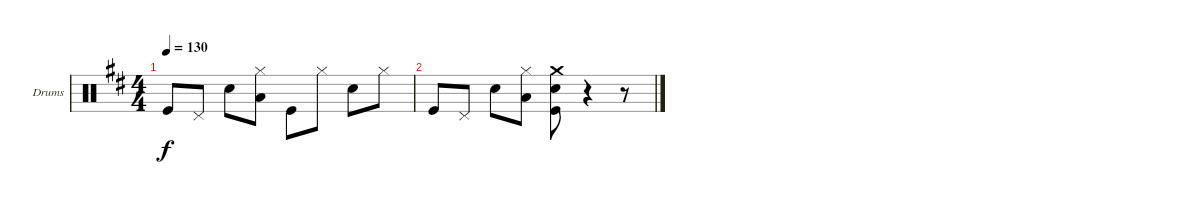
\defaultSystemsLayout 4
\bracketExtendMode groupsimilarinstruments
\firstSystemTrackNameOrientation horizontal
\otherSystemsTrackNameOrientation horizontal
\track ("Drumkit" "Drums") {instrument percussion}
\staff {score}
\articulation defaults
\ts (4 4)
\tempo 130
\clef neutral
\scale
0.333333
\ks d "Kick (hit)".8{dy f} "Pedal Hi-Hat (hit)".8 "Snare (hit) 2".8
("Hi-Hat (closed)" "Low Tom (hit)").8 "Kick (hit)".8 "Hi-Hat (closed)".8 "Snare (hit) 2".8 "Hi-Hat (closed)".8 |
\scale
0.333333 "Kick (hit)".8 "Pedal Hi-Hat (hit)".8 "Snare (hit) 2".8 ("Hi-Hat (closed)" "Low Tom (hit)").8 ("Kick (hit)" "Snare (hit) 2" "Crash medium (hit)").8 r.4 r.8
